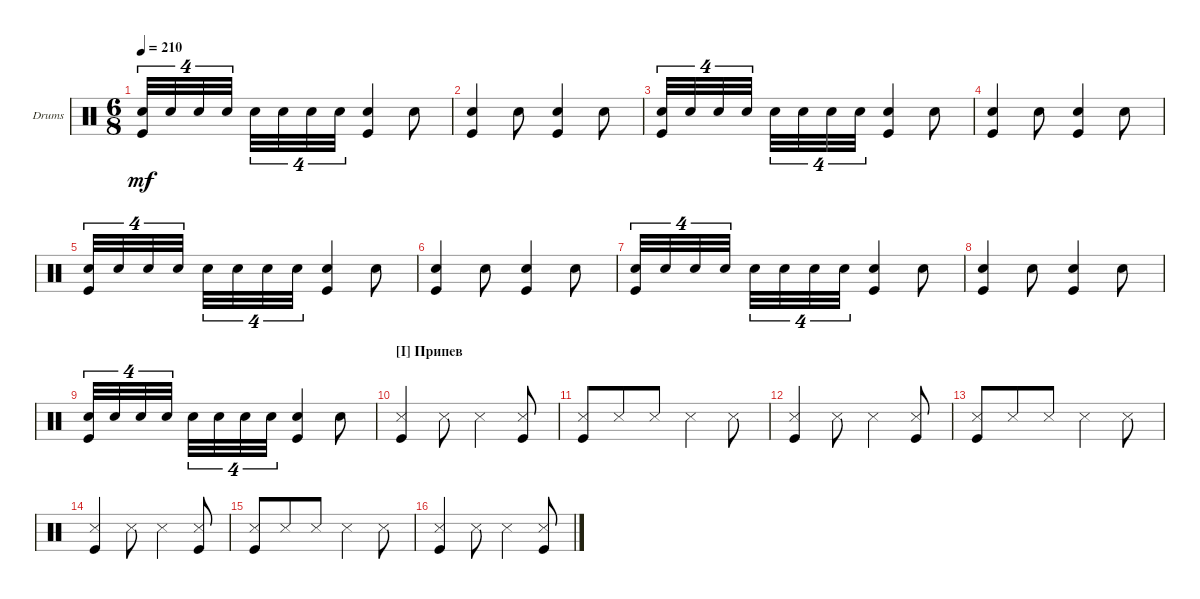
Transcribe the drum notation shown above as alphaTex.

\defaultSystemsLayout 4
\bracketExtendMode nobrackets
\firstSystemTrackNameOrientation horizontal
\otherSystemsTrackNameOrientation horizontal
\track ("Drumkit" "Drums") {instrument percussion}
\staff {score}
\articulation defaults
\ts (6 8)
\tempo 210
\clef neutral
\scale
0.333333
\ks c
("Kick (hit)" "Snare (hit) 2").32{tu (4 6) dy mf} "Snare (hit) 2".32{tu (4 6)} "Snare (hit) 2".32{tu (4 6)} "Snare (hit) 2".32{tu (4 6)} "Snare (hit) 2".32{tu (4 6)} "Snare (hit) 2".32{tu (4 6)} "Snare (hit) 2".32{tu (4 6)} "Snare (hit) 2".32{tu (4 6)} ("Kick (hit)" "Snare (hit) 2").4 "Snare (hit) 2".8 |
\scale
0.333333 ("Kick (hit)" "Snare (hit) 2").4 "Snare (hit) 2".8 ("Kick (hit)" "Snare (hit) 2").4 "Snare (hit) 2".8 |
\scale
0.333333 ("Kick (hit)" "Snare (hit) 2").32{tu (4 6)} "Snare (hit) 2".32{tu (4 6)} "Snare (hit) 2".32{tu (4 6)} "Snare (hit) 2".32{tu (4 6)} "Snare (hit) 2".32{tu (4 6)} "Snare (hit) 2".32{tu (4 6)} "Snare (hit) 2".32{tu (4 6)} "Snare (hit) 2".32{tu (4 6)} ("Kick (hit)" "Snare (hit) 2").4 "Snare (hit) 2".8 |
\scale
0.333333 ("Kick (hit)" "Snare (hit) 2").4 "Snare (hit) 2".8 ("Kick (hit)" "Snare (hit) 2").4 "Snare (hit) 2".8 |
\scale
0.333333 ("Kick (hit)" "Snare (hit) 2").32{tu (4 6)} "Snare (hit) 2".32{tu (4 6)} "Snare (hit) 2".32{tu (4 6)} "Snare (hit) 2".32{tu (4 6)} "Snare (hit) 2".32{tu (4 6)} "Snare (hit) 2".32{tu (4 6)} "Snare (hit) 2".32{tu (4 6)} "Snare (hit) 2".32{tu (4 6)} ("Kick (hit)" "Snare (hit) 2").4 "Snare (hit) 2".8 |
\scale
0.333333 ("Kick (hit)" "Snare (hit) 2").4 "Snare (hit) 2".8 ("Kick (hit)" "Snare (hit) 2").4 "Snare (hit) 2".8 |
\scale
0.333333 ("Kick (hit)" "Snare (hit) 2").32{tu (4 6)} "Snare (hit) 2".32{tu (4 6)} "Snare (hit) 2".32{tu (4 6)} "Snare (hit) 2".32{tu (4 6)} "Snare (hit) 2".32{tu (4 6)} "Snare (hit) 2".32{tu (4 6)} "Snare (hit) 2".32{tu (4 6)} "Snare (hit) 2".32{tu (4 6)} ("Kick (hit)" "Snare (hit) 2").4 "Snare (hit) 2".8 |
\scale
0.333333 ("Kick (hit)" "Snare (hit) 2").4 "Snare (hit) 2".8 ("Kick (hit)" "Snare (hit) 2").4 "Snare (hit) 2".8 |
\scale
0.333333 ("Kick (hit)" "Snare (hit) 2").32{tu (4 6)} "Snare (hit) 2".32{tu (4 6)} "Snare (hit) 2".32{tu (4 6)} "Snare (hit) 2".32{tu (4 6)} "Snare (hit) 2".32{tu (4 6)} "Snare (hit) 2".32{tu (4 6)} "Snare (hit) 2".32{tu (4 6)} "Snare (hit) 2".32{tu (4 6)} ("Kick (hit)" "Snare (hit) 2").4 "Snare (hit) 2".8 |
\section ("I" "Припев")
\scale
0.333333 ("Kick (hit)" "Snare (side stick) 3").4 "Snare (side stick) 3".8 "Snare (side stick) 3".4 ("Kick (hit)" "Snare (side stick) 3").8 |
\scale
0.333333 ("Kick (hit)" "Snare (side stick) 3").8 "Snare (side stick) 3".8 "Snare (side stick) 3".8 "Snare (side stick) 3".4 "Snare (side stick) 3".8 |
\scale
0.333333 ("Kick (hit)" "Snare (side stick) 3").4 "Snare (side stick) 3".8 "Snare (side stick) 3".4 ("Kick (hit)" "Snare (side stick) 3").8 |
\scale
0.333333 ("Kick (hit)" "Snare (side stick) 3").8 "Snare (side stick) 3".8 "Snare (side stick) 3".8 "Snare (side stick) 3".4 "Snare (side stick) 3".8 |
\scale
0.333333 ("Kick (hit)" "Snare (side stick) 3").4 "Snare (side stick) 3".8 "Snare (side stick) 3".4 ("Kick (hit)" "Snare (side stick) 3").8 |
\scale
0.333333 ("Kick (hit)" "Snare (side stick) 3").8 "Snare (side stick) 3".8 "Snare (side stick) 3".8 "Snare (side stick) 3".4 "Snare (side stick) 3".8 |
\scale
0.333333 ("Kick (hit)" "Snare (side stick) 3").4 "Snare (side stick) 3".8 "Snare (side stick) 3".4 ("Kick (hit)" "Snare (side stick) 3").8
